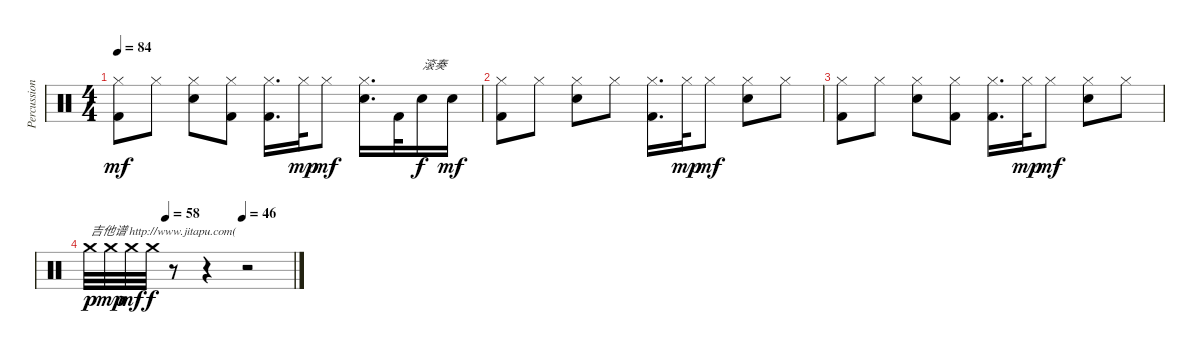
\track ("Percussion" "Percussion") {instrument percussion}
\staff {score}
\articulation defaults
\ts (4 4)
\tempo 84
\clef neutral
\ks c
("Hi-Hat (closed)" "Kick (hit) 2").8{dy mf} "Hi-Hat (closed)".8 ("Hi-Hat (closed)" "Electric Snare (hit)").8 ("Hi-Hat (closed)" "Kick (hit) 2").8 ("Hi-Hat (closed)" "Kick (hit) 2").16{d} "Hi-Hat (closed)".32{dy mp} "Hi-Hat (closed)".8{dy mf} ("Hi-Hat (closed)" "Electric Snare (hit)").16{d} "Kick (hit) 2".32 "Electric Snare (hit)".16{txt "滚奏" dy f} "Electric Snare (hit)".16{dy mf} |
("Hi-Hat (closed)" "Kick (hit) 2").8 "Hi-Hat (closed)".8 ("Hi-Hat (closed)" "Electric Snare (hit)").8 "Hi-Hat (closed)".8 ("Hi-Hat (closed)" "Kick (hit) 2").16{d} "Hi-Hat (closed)".32{dy mp} "Hi-Hat (closed)".8{dy mf} ("Hi-Hat (closed)" "Electric Snare (hit)").8 "Hi-Hat (closed)".8 |
("Hi-Hat (closed)" "Kick (hit) 2").8 "Hi-Hat (closed)".8 ("Hi-Hat (closed)" "Electric Snare (hit)").8 ("Hi-Hat (closed)" "Kick (hit) 2").8 ("Hi-Hat (closed)" "Kick (hit) 2").16{d} "Hi-Hat (closed)".32{dy mp} "Hi-Hat (closed)".8{dy mf} ("Hi-Hat (closed)" "Electric Snare (hit)").8 "Hi-Hat (closed)".8 |
\tempo (58 0.375)
\tempo (46 0.75)
"Crash medium (hit)".32{txt "吉他谱 http://www.jitapu.com(" dy p} "Crash medium (hit)".32{dy mp} "Crash medium (hit)".32{dy mf} "Crash medium (hit)".32{dy f} r.8 r.4 r.2
